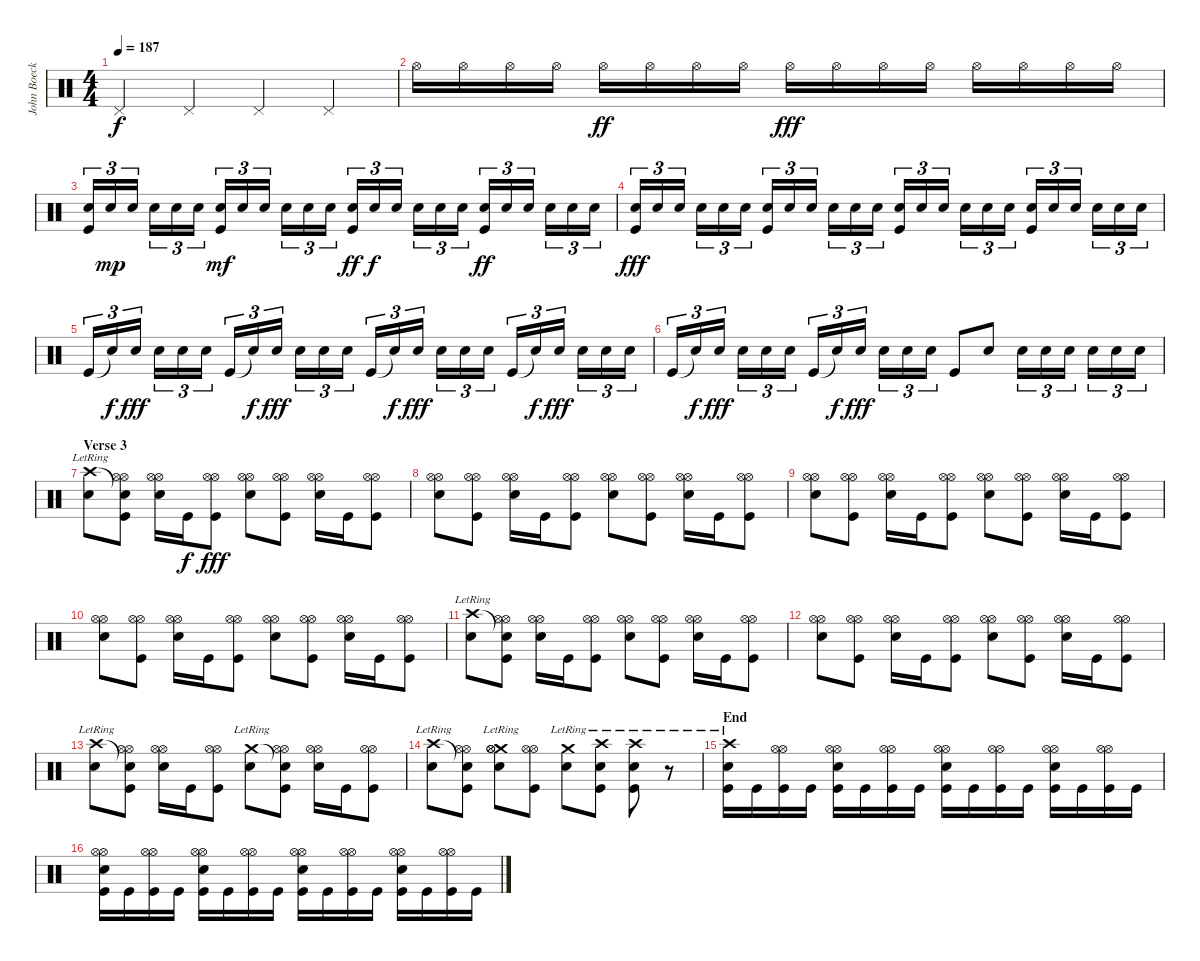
\track ("John Boecklin - Drums" "John Boeck") {instrument percussion}
\staff {score}
\articulation defaults
\ts (4 4)
\tempo 187
\clef neutral
\ks c "Pedal Hi-Hat (hit)".4{dy f} "Pedal Hi-Hat (hit)".4 "Pedal Hi-Hat (hit)".4 "Pedal Hi-Hat (hit)".4
|
"Hi-Hat (open)".16 "Hi-Hat (open)".16 "Hi-Hat (open)".16 "Hi-Hat (open)".16 "Hi-Hat (open)".16{dy ff} "Hi-Hat (open)".16 "Hi-Hat (open)".16 "Hi-Hat (open)".16 "Hi-Hat (open)".16{dy fff} "Hi-Hat (open)".16 "Hi-Hat (open)".16 "Hi-Hat (open)".16 "Hi-Hat (open)".16 "Hi-Hat (open)".16 "Hi-Hat (open)".16 "Hi-Hat (open)".16 |
("Snare (hit) 2" "Kick (hit)").16{tu (3 2)} "Snare (hit) 2".16{tu (3 2) dy mp} "Snare (hit) 2".16{tu (3 2)} "Snare (hit) 2".16{tu (3 2)} "Snare (hit) 2".16{tu (3 2)} "Snare (hit) 2".16{tu (3 2)} ("Snare (hit) 2" "Kick (hit)").16{tu (3 2) dy mf} "Snare (hit) 2".16{tu (3 2)} "Snare (hit) 2".16{tu (3 2)} "Snare (hit) 2".16{tu (3 2)} "Snare (hit) 2".16{tu (3 2)} "Snare (hit) 2".16{tu (3 2)} ("Snare (hit) 2" "Kick (hit)").16{tu (3 2) dy ff} "Snare (hit) 2".16{tu (3 2) dy f} "Snare (hit) 2".16{tu (3 2)} "Snare (hit) 2".16{tu (3 2)} "Snare (hit) 2".16{tu (3 2)} "Snare (hit) 2".16{tu (3 2)} ("Snare (hit) 2" "Kick (hit)").16{tu (3 2) dy ff} "Snare (hit) 2".16{tu (3 2)} "Snare (hit) 2".16{tu (3 2)} "Snare (hit) 2".16{tu (3 2)} "Snare (hit) 2".16{tu (3 2)} "Snare (hit) 2".16{tu (3 2)} |
("Snare (hit) 2" "Kick (hit)").16{tu (3 2) dy fff} "Snare (hit) 2".16{tu (3 2)} "Snare (hit) 2".16{tu (3 2)} "Snare (hit) 2".16{tu (3 2)} "Snare (hit) 2".16{tu (3 2)} "Snare (hit) 2".16{tu (3 2)} ("Snare (hit) 2" "Kick (hit)").16{tu (3 2)} "Snare (hit) 2".16{tu (3 2)} "Snare (hit) 2".16{tu (3 2)} "Snare (hit) 2".16{tu (3 2)} "Snare (hit) 2".16{tu (3 2)} "Snare (hit) 2".16{tu (3 2)} ("Snare (hit) 2" "Kick (hit)").16{tu (3 2)} "Snare (hit) 2".16{tu (3 2)} "Snare (hit) 2".16{tu (3 2)} "Snare (hit) 2".16{tu (3 2)} "Snare (hit) 2".16{tu (3 2)} "Snare (hit) 2".16{tu (3 2)} ("Snare (hit) 2" "Kick (hit)").16{tu (3 2)} "Snare (hit) 2".16{tu (3 2)} "Snare (hit) 2".16{tu (3 2)} "Snare (hit) 2".16{tu (3 2)} "Snare (hit) 2".16{tu (3 2)} "Snare (hit) 2".16{tu (3 2)} |
"Kick (hit)".16{tu (3 2)} "Snare (hit)"{t}.16{tu (3 2) dy f} "Snare (hit) 2".16{tu (3 2) dy fff} "Snare (hit) 2".16{tu (3 2)} "Snare (hit) 2".16{tu (3 2)} "Snare (hit) 2".16{tu (3 2)} "Kick (hit)".16{tu (3 2)} "Snare (hit)"{t}.16{tu (3 2) dy f} "Snare (hit) 2".16{tu (3 2) dy fff} "Snare (hit) 2".16{tu (3 2)} "Snare (hit) 2".16{tu (3 2)} "Snare (hit) 2".16{tu (3 2)} "Kick (hit)".16{tu (3 2)} "Snare (hit)"{t}.16{tu (3 2) dy f} "Snare (hit) 2".16{tu (3 2) dy fff} "Snare (hit) 2".16{tu (3 2)} "Snare (hit) 2".16{tu (3 2)} "Snare (hit) 2".16{tu (3 2)} "Kick (hit)".16{tu (3 2)} "Snare (hit)"{t}.16{tu (3 2) dy f} "Snare (hit) 2".16{tu (3 2) dy fff} "Snare (hit) 2".16{tu (3 2)} "Snare (hit) 2".16{tu (3 2)} "Snare (hit) 2".16{tu (3 2)} |
"Kick (hit)".16{tu (3 2)} "Snare (hit)"{t}.16{tu (3 2) dy f} "Snare (hit) 2".16{tu (3 2) dy fff} "Snare (hit) 2".16{tu (3 2)} "Snare (hit) 2".16{tu (3 2)} "Snare (hit) 2".16{tu (3 2)} "Kick (hit)".16{tu (3 2)} "Snare (hit)"{t}.16{tu (3 2) dy f} "Snare (hit) 2".16{tu (3 2) dy fff} "Snare (hit) 2".16{tu (3 2)} "Snare (hit) 2".16{tu (3 2)} "Snare (hit) 2".16{tu (3 2)} "Kick (hit)".8 "Snare (hit) 2".8 "Snare (hit) 2".16{tu (3 2)} "Snare (hit) 2".16{tu (3 2)} "Snare (hit) 2".16{tu (3 2)} "Snare (hit) 2".16{tu (3 2)} "Snare (hit) 2".16{tu (3 2)} "Snare (hit) 2".16{tu (3 2)} |
\section ("" "Verse 3")
("Crash high (hit)"{lr} "Snare (hit) 2").8 ("Snare (hit)"{t} "Hi-Hat (open)" "Hi-Hat (open)" "Kick (hit)").8 ("Snare (hit) 2" "Hi-Hat (open)" "Hi-Hat (open)").16 "Kick (hit)".16{dy f} ("Hi-Hat (open)" "Hi-Hat (open)" "Kick (hit)").8{dy fff} ("Snare (hit) 2" "Hi-Hat (open)" "Hi-Hat (open)").8 ("Hi-Hat (open)" "Hi-Hat (open)" "Kick (hit)").8 ("Snare (hit) 2" "Hi-Hat (open)" "Hi-Hat (open)").16 "Kick (hit)".16 ("Hi-Hat (open)" "Hi-Hat (open)" "Kick (hit)").8 |
("Snare (hit) 2" "Hi-Hat (open)" "Hi-Hat (open)").8 ("Hi-Hat (open)" "Hi-Hat (open)" "Kick (hit)").8 ("Snare (hit) 2" "Hi-Hat (open)" "Hi-Hat (open)").16 "Kick (hit)".16 ("Hi-Hat (open)" "Hi-Hat (open)" "Kick (hit)").8 ("Snare (hit) 2" "Hi-Hat (open)" "Hi-Hat (open)").8 ("Hi-Hat (open)" "Hi-Hat (open)" "Kick (hit)").8 ("Snare (hit) 2" "Hi-Hat (open)" "Hi-Hat (open)").16 "Kick (hit)".16 ("Hi-Hat (open)" "Hi-Hat (open)" "Kick (hit)").8 |
("Snare (hit) 2" "Hi-Hat (open)" "Hi-Hat (open)").8 ("Hi-Hat (open)" "Hi-Hat (open)" "Kick (hit)").8 ("Snare (hit) 2" "Hi-Hat (open)" "Hi-Hat (open)").16 "Kick (hit)".16 ("Hi-Hat (open)" "Hi-Hat (open)" "Kick (hit)").8 ("Snare (hit) 2" "Hi-Hat (open)" "Hi-Hat (open)").8 ("Hi-Hat (open)" "Hi-Hat (open)" "Kick (hit)").8 ("Snare (hit) 2" "Hi-Hat (open)" "Hi-Hat (open)").16 "Kick (hit)".16 ("Hi-Hat (open)" "Hi-Hat (open)" "Kick (hit)").8 |
("Snare (hit) 2" "Hi-Hat (open)" "Hi-Hat (open)").8 ("Hi-Hat (open)" "Hi-Hat (open)" "Kick (hit)").8 ("Snare (hit) 2" "Hi-Hat (open)" "Hi-Hat (open)").16 "Kick (hit)".16 ("Hi-Hat (open)" "Hi-Hat (open)" "Kick (hit)").8 ("Snare (hit) 2" "Hi-Hat (open)" "Hi-Hat (open)").8 ("Hi-Hat (open)" "Hi-Hat (open)" "Kick (hit)").8 ("Snare (hit) 2" "Hi-Hat (open)" "Hi-Hat (open)").16 "Kick (hit)".16 ("Hi-Hat (open)" "Hi-Hat (open)" "Kick (hit)").8 |
("Crash high (hit)"{lr} "Snare (hit) 2").8 ("Snare (hit)"{t} "Hi-Hat (open)" "Hi-Hat (open)" "Kick (hit)").8 ("Snare (hit) 2" "Hi-Hat (open)" "Hi-Hat (open)").16 "Kick (hit)".16 ("Hi-Hat (open)" "Hi-Hat (open)" "Kick (hit)").8 ("Snare (hit) 2" "Hi-Hat (open)" "Hi-Hat (open)").8 ("Hi-Hat (open)" "Hi-Hat (open)" "Kick (hit)").8 ("Snare (hit) 2" "Hi-Hat (open)" "Hi-Hat (open)").16 "Kick (hit)".16 ("Hi-Hat (open)" "Hi-Hat (open)" "Kick (hit)").8 |
("Snare (hit) 2" "Hi-Hat (open)" "Hi-Hat (open)").8 ("Hi-Hat (open)" "Hi-Hat (open)" "Kick (hit)").8 ("Snare (hit) 2" "Hi-Hat (open)" "Hi-Hat (open)").16 "Kick (hit)".16 ("Hi-Hat (open)" "Hi-Hat (open)" "Kick (hit)").8 ("Snare (hit) 2" "Hi-Hat (open)" "Hi-Hat (open)").8 ("Hi-Hat (open)" "Hi-Hat (open)" "Kick (hit)").8 ("Snare (hit) 2" "Hi-Hat (open)" "Hi-Hat (open)").16 "Kick (hit)".16 ("Hi-Hat (open)" "Hi-Hat (open)" "Kick (hit)").8 |
("Crash high (hit)"{lr} "Snare (hit) 2").8 ("Snare (hit)"{t} "Hi-Hat (open)" "Hi-Hat (open)" "Kick (hit)").8 ("Snare (hit) 2" "Hi-Hat (open)" "Hi-Hat (open)").16 "Kick (hit)".16 ("Hi-Hat (open)" "Hi-Hat (open)" "Kick (hit)").8 ("Crash medium (hit)"{lr} "Snare (hit) 2").8 ("Snare (hit)"{t} "Hi-Hat (open)" "Hi-Hat (open)" "Kick (hit)").8 ("Snare (hit) 2" "Hi-Hat (open)" "Hi-Hat (open)").16 "Kick (hit)".16 ("Hi-Hat (open)" "Hi-Hat (open)" "Kick (hit)").8 |
("Crash high (hit)"{lr} "Snare (hit) 2").8 ("Snare (hit)"{t} "Hi-Hat (open)" "Hi-Hat (open)" "Kick (hit)").8 ("Crash medium (hit)"{lr} "Snare (hit) 2" "Hi-Hat (open)" "Hi-Hat (open)").8 ("Hi-Hat (open)" "Hi-Hat (open)" "Kick (hit)").8 ("Crash medium (hit)"{lr} "Snare (hit) 2").8 ("Crash high (hit)"{lr} "Snare (hit) 2" "Kick (hit)").8 ("Crash high (hit)"{lr} "Snare (hit) 2" "Kick (hit)").8 r.8 |
\section ("" "End")
("Crash high (hit)"{lr} "Snare (hit) 2" "Kick (hit)").16 "Kick (hit)".16 ("Hi-Hat (open)" "Hi-Hat (open)" "Kick (hit)").16 "Kick (hit)".16 ("Snare (hit) 2" "Hi-Hat (open)" "Hi-Hat (open)" "Kick (hit)").16 "Kick (hit)".16 ("Hi-Hat (open)" "Hi-Hat (open)" "Kick (hit)").16 "Kick (hit)".16 ("Snare (hit) 2" "Hi-Hat (open)" "Hi-Hat (open)" "Kick (hit)").16 "Kick (hit)".16 ("Hi-Hat (open)" "Hi-Hat (open)" "Kick (hit)").16 "Kick (hit)".16 ("Snare (hit) 2" "Hi-Hat (open)" "Hi-Hat (open)" "Kick (hit)").16 "Kick (hit)".16 ("Hi-Hat (open)" "Hi-Hat (open)" "Kick (hit)").16 "Kick (hit)".16 |
("Snare (hit) 2" "Hi-Hat (open)" "Hi-Hat (open)" "Kick (hit)").16 "Kick (hit)".16 ("Hi-Hat (open)" "Hi-Hat (open)" "Kick (hit)").16 "Kick (hit)".16 ("Snare (hit) 2" "Hi-Hat (open)" "Hi-Hat (open)" "Kick (hit)").16 "Kick (hit)".16 ("Hi-Hat (open)" "Hi-Hat (open)" "Kick (hit)").16 "Kick (hit)".16 ("Snare (hit) 2" "Hi-Hat (open)" "Hi-Hat (open)" "Kick (hit)").16 "Kick (hit)".16 ("Hi-Hat (open)" "Hi-Hat (open)" "Kick (hit)").16 "Kick (hit)".16 ("Snare (hit) 2" "Hi-Hat (open)" "Hi-Hat (open)" "Kick (hit)").16 "Kick (hit)".16 ("Hi-Hat (open)" "Hi-Hat (open)" "Kick (hit)").16 "Kick (hit)".16
